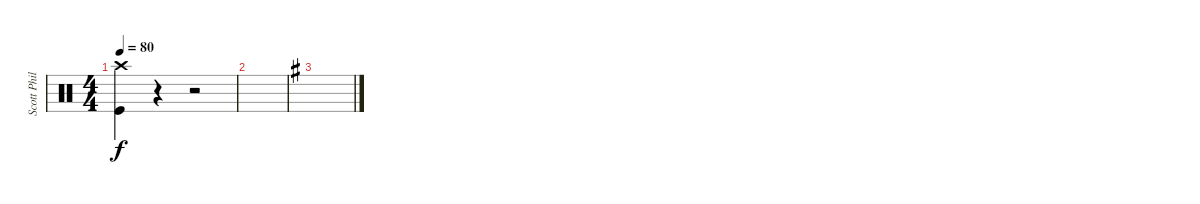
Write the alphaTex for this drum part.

\track ("Scott Phillips" "Scott Phil") {instrument percussion}
\staff {score}
\articulation defaults
\ts (4 4)
\tempo 80
\clef neutral
\ks c
("Crash high (hit)" "Kick (hit)").4{dy f} r.4 r.2 |
|
\ks g
